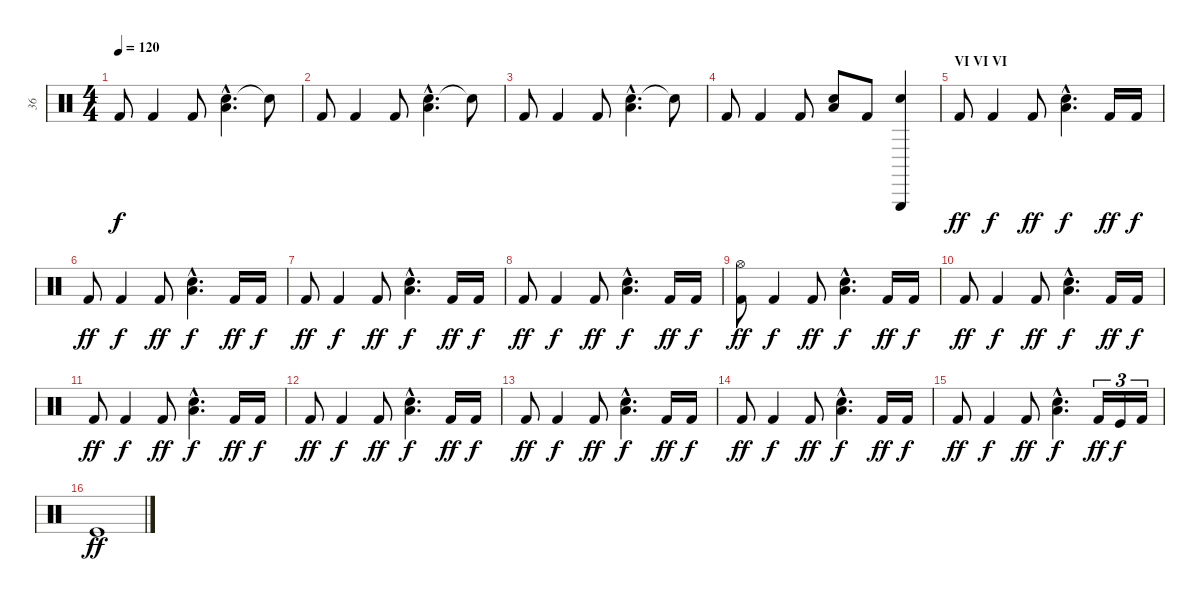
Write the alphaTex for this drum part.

\track ("36" "36") {instrument percussion}
\staff {score}
\articulation defaults
\ts (4 4)
\tempo 120
\clef neutral
\ks c "Kick (hit) 2".8{dy f} "Kick (hit) 2".4 "Kick (hit) 2".8
("Electric Snare (hit)"{hac} "Low Floor Tom (hit)"{hac}).4{d} "Snare (hit)"{t}.8 |
"Kick (hit) 2".8 "Kick (hit) 2".4 "Kick (hit) 2".8 ("Electric Snare (hit)"{hac} "Low Floor Tom (hit)"{hac}).4{d} "Snare (hit)"{t}.8 |
"Kick (hit) 2".8 "Kick (hit) 2".4 "Kick (hit) 2".8 ("Electric Snare (hit)"{hac} "Low Floor Tom (hit)"{hac}).4{d} "Snare (hit)"{t}.8 |
"Kick (hit) 2".8 "Kick (hit) 2".4 "Kick (hit) 2".8 ("Electric Snare (hit)" "Low Floor Tom (hit)").8 "Kick (hit) 2".8 ("Electric Snare (hit)" "Triangle (hit)").4 |
\section ("" "VI VI VI")
"Kick (hit) 2".8{dy ff} "Kick (hit) 2".4{dy f} "Kick (hit) 2".8{dy ff} ("Electric Snare (hit)"{hac} "Low Floor Tom (hit)"{hac}).4{d dy f} "Kick (hit) 2".16{dy ff} "Kick (hit) 2".16{dy f} |
"Kick (hit) 2".8{dy ff} "Kick (hit) 2".4{dy f} "Kick (hit) 2".8{dy ff} ("Electric Snare (hit)"{hac} "Low Floor Tom (hit)"{hac}).4{d dy f} "Kick (hit) 2".16{dy ff} "Kick (hit) 2".16{dy f} |
"Kick (hit) 2".8{dy ff} "Kick (hit) 2".4{dy f} "Kick (hit) 2".8{dy ff} ("Electric Snare (hit)"{hac} "Low Floor Tom (hit)"{hac}).4{d dy f} "Kick (hit) 2".16{dy ff} "Kick (hit) 2".16{dy f} |
"Kick (hit) 2".8{dy ff} "Kick (hit) 2".4{dy f} "Kick (hit) 2".8{dy ff} ("Electric Snare (hit)"{hac} "Low Floor Tom (hit)"{hac}).4{d dy f} "Kick (hit) 2".16{dy ff} "Kick (hit) 2".16{dy f} |
("Kick (hit) 2" "Hi-Hat (open)").8{dy ff} "Kick (hit) 2".4{dy f} "Kick (hit) 2".8{dy ff} ("Electric Snare (hit)"{hac} "Low Floor Tom (hit)"{hac}).4{d dy f} "Kick (hit) 2".16{dy ff} "Kick (hit) 2".16{dy f} |
"Kick (hit) 2".8{dy ff} "Kick (hit) 2".4{dy f} "Kick (hit) 2".8{dy ff} ("Electric Snare (hit)"{hac} "Low Floor Tom (hit)"{hac}).4{d dy f} "Kick (hit) 2".16{dy ff} "Kick (hit) 2".16{dy f} |
"Kick (hit) 2".8{dy ff} "Kick (hit) 2".4{dy f} "Kick (hit) 2".8{dy ff} ("Electric Snare (hit)"{hac} "Low Floor Tom (hit)"{hac}).4{d dy f} "Kick (hit) 2".16{dy ff} "Kick (hit) 2".16{dy f} |
"Kick (hit) 2".8{dy ff} "Kick (hit) 2".4{dy f} "Kick (hit) 2".8{dy ff} ("Electric Snare (hit)"{hac} "Low Floor Tom (hit)"{hac}).4{d dy f} "Kick (hit) 2".16{dy ff} "Kick (hit) 2".16{dy f} |
"Kick (hit) 2".8{dy ff} "Kick (hit) 2".4{dy f} "Kick (hit) 2".8{dy ff} ("Electric Snare (hit)"{hac} "Low Floor Tom (hit)"{hac}).4{d dy f} "Kick (hit) 2".16{dy ff} "Kick (hit) 2".16{dy f} |
"Kick (hit) 2".8{dy ff} "Kick (hit) 2".4{dy f} "Kick (hit) 2".8{dy ff} ("Electric Snare (hit)"{hac} "Low Floor Tom (hit)"{hac}).4{d dy f} "Kick (hit) 2".16{dy ff} "Kick (hit) 2".16{dy f} |
"Kick (hit) 2".8{dy ff} "Kick (hit) 2".4{dy f} "Kick (hit) 2".8{dy ff} ("Electric Snare (hit)"{hac} "Low Floor Tom (hit)"{hac}).4{d dy f} "Kick (hit) 2".16{tu (3 2) dy ff} "Kick (hit)".16{tu (3 2) dy f} "Kick (hit) 2".16{tu (3 2)} |
"Kick (hit)".1{dy ff}
